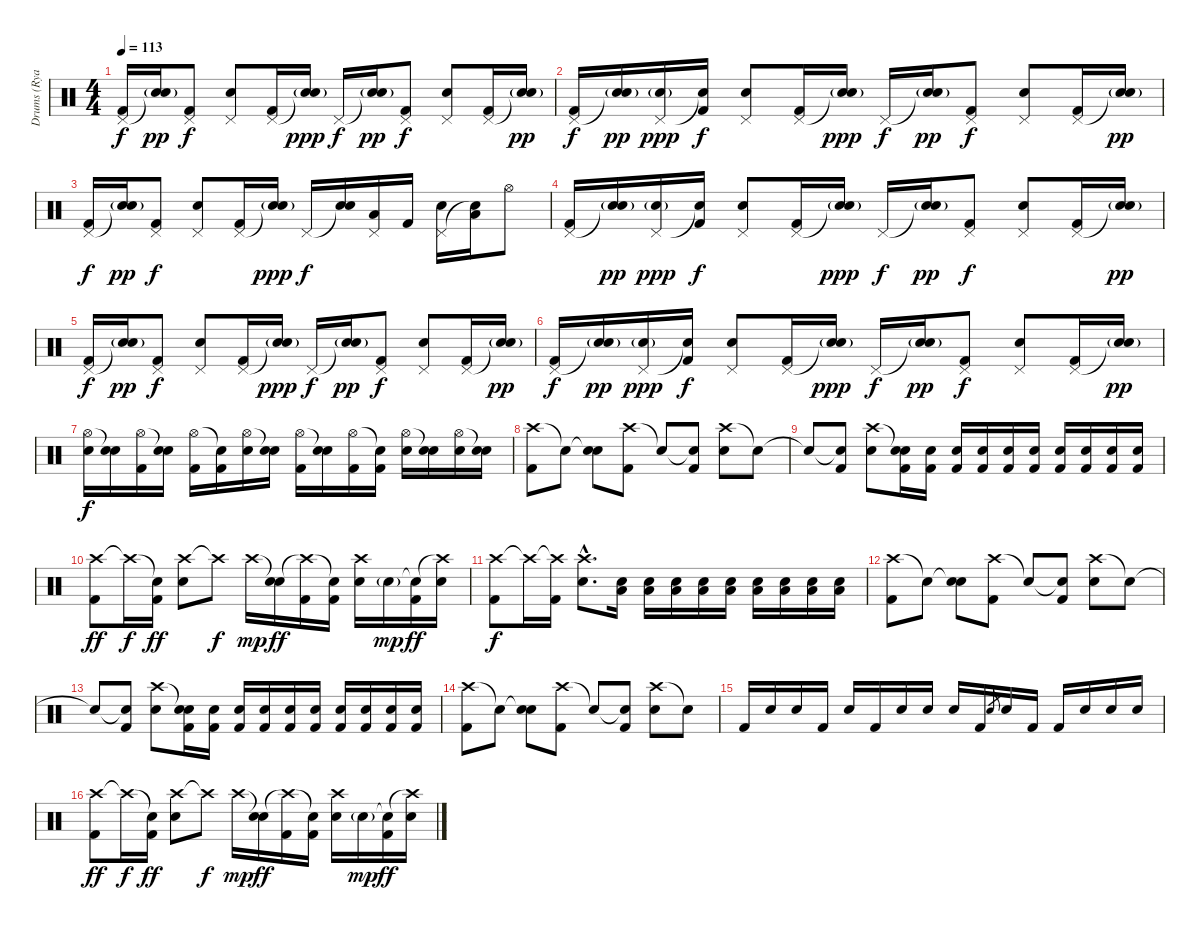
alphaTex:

\track ("Drums (Ryan \"Nik\" Vikedal)" "Drums (Rya") {instrument percussion}
\staff {score}
\articulation defaults
\ts (4 4)
\tempo 113
\clef neutral
\ks c
("Pedal Hi-Hat (hit)" "Kick (hit) 2").16{dy f} ("Snare (hit)"{t} "Electric Snare (hit)"{g}).16{dy pp} ("Pedal Hi-Hat (hit)" "Kick (hit) 2").8{dy f} ("Pedal Hi-Hat (hit)" "Electric Snare (hit)").8 ("Pedal Hi-Hat (hit)" "Kick (hit) 2").16 ("Snare (hit)"{t} "Electric Snare (hit)"{g}).16{dy ppp} "Pedal Hi-Hat (hit)".16{dy f} ("Snare (hit)"{t} "Electric Snare (hit)"{g}).16{dy pp} ("Pedal Hi-Hat (hit)" "Kick (hit) 2").8{dy f} ("Pedal Hi-Hat (hit)" "Electric Snare (hit)").8 ("Pedal Hi-Hat (hit)" "Kick (hit) 2").16 ("Snare (hit)"{t} "Electric Snare (hit)"{g}).16{dy pp} |
("Pedal Hi-Hat (hit)" "Kick (hit) 2").16{dy f} ("Snare (hit)"{t} "Electric Snare (hit)"{g}).16{dy pp} ("Pedal Hi-Hat (hit)" "Electric Snare (hit)"{g}).16{dy ppp} ("Snare (hit)"{t} "Kick (hit) 2").16{dy f} ("Pedal Hi-Hat (hit)" "Electric Snare (hit)").8 ("Pedal Hi-Hat (hit)" "Kick (hit) 2").16 ("Snare (hit)"{t} "Electric Snare (hit)"{g}).16{dy ppp} "Pedal Hi-Hat (hit)".16{dy f} ("Snare (hit)"{t} "Electric Snare (hit)"{g}).16{dy pp} ("Pedal Hi-Hat (hit)" "Kick (hit) 2").8{dy f} ("Pedal Hi-Hat (hit)" "Electric Snare (hit)").8 ("Pedal Hi-Hat (hit)" "Kick (hit) 2").16 ("Snare (hit)"{t} "Electric Snare (hit)"{g}).16{dy pp} |
("Pedal Hi-Hat (hit)" "Kick (hit) 2").16{dy f} ("Snare (hit)"{t} "Electric Snare (hit)"{g}).16{dy pp} ("Pedal Hi-Hat (hit)" "Kick (hit) 2").8{dy f} ("Pedal Hi-Hat (hit)" "Electric Snare (hit)").8 ("Pedal Hi-Hat (hit)" "Kick (hit) 2").16 ("Snare (hit)"{t} "Electric Snare (hit)"{g}).16{dy ppp} "Pedal Hi-Hat (hit)".16{dy f} ("Snare (hit)"{t} "Electric Snare (hit)").16 ("Pedal Hi-Hat (hit)" "Low Tom (hit)").16 "Kick (hit) 2".16 ("Pedal Hi-Hat (hit)" "Electric Snare (hit)").16 ("Snare (hit)"{t} "Low Tom (hit)").16 "Hi-Hat (open)".8 |
("Pedal Hi-Hat (hit)" "Kick (hit) 2").16 ("Snare (hit)"{t} "Electric Snare (hit)"{g}).16{dy pp} ("Pedal Hi-Hat (hit)" "Electric Snare (hit)"{g}).16{dy ppp} ("Snare (hit)"{t} "Kick (hit) 2").16{dy f} ("Pedal Hi-Hat (hit)" "Electric Snare (hit)").8 ("Pedal Hi-Hat (hit)" "Kick (hit) 2").16 ("Snare (hit)"{t} "Electric Snare (hit)"{g}).16{dy ppp} "Pedal Hi-Hat (hit)".16{dy f} ("Snare (hit)"{t} "Electric Snare (hit)"{g}).16{dy pp} ("Pedal Hi-Hat (hit)" "Kick (hit) 2").8{dy f} ("Pedal Hi-Hat (hit)" "Electric Snare (hit)").8 ("Pedal Hi-Hat (hit)" "Kick (hit) 2").16 ("Snare (hit)"{t} "Electric Snare (hit)"{g}).16{dy pp} |
("Pedal Hi-Hat (hit)" "Kick (hit) 2").16{dy f} ("Snare (hit)"{t} "Electric Snare (hit)"{g}).16{dy pp} ("Pedal Hi-Hat (hit)" "Kick (hit) 2").8{dy f} ("Pedal Hi-Hat (hit)" "Electric Snare (hit)").8 ("Pedal Hi-Hat (hit)" "Kick (hit) 2").16 ("Snare (hit)"{t} "Electric Snare (hit)"{g}).16{dy ppp} "Pedal Hi-Hat (hit)".16{dy f} ("Snare (hit)"{t} "Electric Snare (hit)"{g}).16{dy pp} ("Pedal Hi-Hat (hit)" "Kick (hit) 2").8{dy f} ("Pedal Hi-Hat (hit)" "Electric Snare (hit)").8 ("Pedal Hi-Hat (hit)" "Kick (hit) 2").16 ("Snare (hit)"{t} "Electric Snare (hit)"{g}).16{dy pp} |
("Pedal Hi-Hat (hit)" "Kick (hit) 2").16{dy f} ("Snare (hit)"{t} "Electric Snare (hit)"{g}).16{dy pp} ("Pedal Hi-Hat (hit)" "Electric Snare (hit)"{g}).16{dy ppp} ("Snare (hit)"{t} "Kick (hit) 2").16{dy f} ("Pedal Hi-Hat (hit)" "Electric Snare (hit)").8 ("Pedal Hi-Hat (hit)" "Kick (hit) 2").16 ("Snare (hit)"{t} "Electric Snare (hit)"{g}).16{dy ppp} "Pedal Hi-Hat (hit)".16{dy f} ("Snare (hit)"{t} "Electric Snare (hit)"{g}).16{dy pp} ("Pedal Hi-Hat (hit)" "Kick (hit) 2").8{dy f} ("Pedal Hi-Hat (hit)" "Electric Snare (hit)").8 ("Pedal Hi-Hat (hit)" "Kick (hit) 2").16 ("Snare (hit)"{t} "Electric Snare (hit)"{g}).16{dy pp} |
("Hi-Hat (open)" "Electric Snare (hit)").16{dy f} ("Snare (hit)"{t} "Electric Snare (hit)").16 ("Hi-Hat (open)" "Kick (hit) 2").16 ("Snare (hit)"{t} "Electric Snare (hit)").16 ("Hi-Hat (open)" "Kick (hit) 2").16 ("Snare (hit)"{t} "Kick (hit) 2").16 ("Hi-Hat (open)" "Electric Snare (hit)").16 ("Snare (hit)"{t} "Electric Snare (hit)").16 ("Hi-Hat (open)" "Kick (hit) 2").16 ("Snare (hit)"{t} "Electric Snare (hit)").16 ("Hi-Hat (open)" "Kick (hit) 2").16 ("Snare (hit)"{t} "Kick (hit) 2").16 ("Hi-Hat (open)" "Electric Snare (hit)").16 ("Snare (hit)"{t} "Electric Snare (hit)").16 ("Hi-Hat (open)" "Electric Snare (hit)").16 ("Snare (hit)"{t} "Electric Snare (hit)").16 |
("Crash high (hit)" "Kick (hit) 2").8 "Snare (hit)"{t}.8 ("Snare (hit)"{t} "Electric Snare (hit)").8 ("Crash high (hit)" "Kick (hit) 2").8 "Snare (hit)"{t}.8 ("Snare (hit)"{t} "Kick (hit) 2").8 ("Crash high (hit)" "Electric Snare (hit)").8 "Snare (hit)"{t}.8 |
"Snare (hit)"{t}.8 ("Snare (hit)"{t} "Kick (hit) 2").8 ("Crash high (hit)" "Electric Snare (hit)").8 ("Snare (hit)"{t} "Electric Snare (hit)" "Kick (hit) 2").16 ("Electric Snare (hit)" "Kick (hit) 2").16 ("Electric Snare (hit)" "Kick (hit) 2").16 ("Electric Snare (hit)" "Kick (hit) 2").16 ("Electric Snare (hit)" "Kick (hit) 2").16 ("Electric Snare (hit)" "Kick (hit) 2").16 ("Electric Snare (hit)" "Kick (hit) 2").16 ("Electric Snare (hit)" "Kick (hit) 2").16 ("Electric Snare (hit)" "Kick (hit) 2").16 ("Electric Snare (hit)" "Kick (hit) 2").16 |
("Crash high (hit)" "Kick (hit) 2").8{dy ff} "Crash high (hit)"{t}.16{dy f} ("Snare (hit)"{t} "Kick (hit) 2").16{dy ff} ("Crash high (hit)" "Electric Snare (hit)").8 "Crash high (hit)"{t}.8{dy f} "Crash high (hit)".16{dy mp} ("Snare (hit)"{t} "Electric Snare (hit)").16{dy ff} ("Crash high (hit)"{t} "Kick (hit) 2").16 ("Snare (hit)"{t} "Kick (hit) 2").16 ("Crash high (hit)" "Electric Snare (hit)").16 "Electric Snare (hit)"{g}.16{dy mp} ("Snare (hit)"{t} "Kick (hit) 2").16{dy ff} ("Crash high (hit)"{t} "Electric Snare (hit)").16 |
("Crash high (hit)" "Kick (hit) 2").8{dy f} "Crash high (hit)"{t}.16 ("Crash high (hit)"{t} "Kick (hit) 2").16 ("Crash high (hit)"{hac} "Electric Snare (hit)"{hac}).8{d} ("Low Tom (hit)" "Electric Snare (hit)").16 ("Low Tom (hit)" "Electric Snare (hit)").16 ("Low Tom (hit)" "Electric Snare (hit)").16 ("Low Tom (hit)" "Electric Snare (hit)").16 ("Low Tom (hit)" "Electric Snare (hit)").16 ("Low Tom (hit)" "Electric Snare (hit)").16 ("Low Tom (hit)" "Electric Snare (hit)").16 ("Low Tom (hit)" "Electric Snare (hit)").16 ("Low Tom (hit)" "Electric Snare (hit)").16 |
("Crash high (hit)" "Kick (hit) 2").8 "Snare (hit)"{t}.8 ("Snare (hit)"{t} "Electric Snare (hit)").8 ("Crash high (hit)" "Kick (hit) 2").8 "Snare (hit)"{t}.8 ("Snare (hit)"{t} "Kick (hit) 2").8 ("Crash high (hit)" "Electric Snare (hit)").8 "Snare (hit)"{t}.8 |
"Snare (hit)"{t}.8 ("Snare (hit)"{t} "Kick (hit) 2").8 ("Crash high (hit)" "Electric Snare (hit)").8 ("Snare (hit)"{t} "Electric Snare (hit)" "Kick (hit) 2").16 ("Electric Snare (hit)" "Kick (hit) 2").16 ("Electric Snare (hit)" "Kick (hit) 2").16 ("Electric Snare (hit)" "Kick (hit) 2").16 ("Electric Snare (hit)" "Kick (hit) 2").16 ("Electric Snare (hit)" "Kick (hit) 2").16 ("Electric Snare (hit)" "Kick (hit) 2").16 ("Electric Snare (hit)" "Kick (hit) 2").16 ("Electric Snare (hit)" "Kick (hit) 2").16 ("Electric Snare (hit)" "Kick (hit) 2").16 |
("Crash high (hit)" "Kick (hit) 2").8 "Snare (hit)"{t}.8 ("Snare (hit)"{t} "Electric Snare (hit)").8 ("Crash high (hit)" "Kick (hit) 2").8 "Snare (hit)"{t}.8 ("Snare (hit)"{t} "Kick (hit) 2").8 ("Crash high (hit)" "Electric Snare (hit)").8 "Snare (hit)"{t}.8 |
"Kick (hit) 2".16 "Electric Snare (hit)".16 "Electric Snare (hit)".16 "Kick (hit) 2".16 "Electric Snare (hit)".16 "Kick (hit) 2".16 "Electric Snare (hit)".16 "Electric Snare (hit)".16 "Electric Snare (hit)".16 "Kick (hit) 2".16 "Electric Snare (hit)".8{gr} "Electric Snare (hit)".16 "Kick (hit) 2".16 "Kick (hit) 2".16 "Electric Snare (hit)".16 "Electric Snare (hit)".16 "Electric Snare (hit)".16 |
("Crash high (hit)" "Kick (hit) 2").8{dy ff} "Crash high (hit)"{t}.16{dy f} ("Snare (hit)"{t} "Kick (hit) 2").16{dy ff} ("Crash high (hit)" "Electric Snare (hit)").8 "Crash high (hit)"{t}.8{dy f} "Crash high (hit)".16{dy mp} ("Snare (hit)"{t} "Electric Snare (hit)").16{dy ff} ("Crash high (hit)"{t} "Kick (hit) 2").16 ("Snare (hit)"{t} "Kick (hit) 2").16 ("Crash high (hit)" "Electric Snare (hit)").16 "Electric Snare (hit)"{g}.16{dy mp} ("Snare (hit)"{t} "Kick (hit) 2").16{dy ff} ("Crash high (hit)"{t} "Electric Snare (hit)").16
